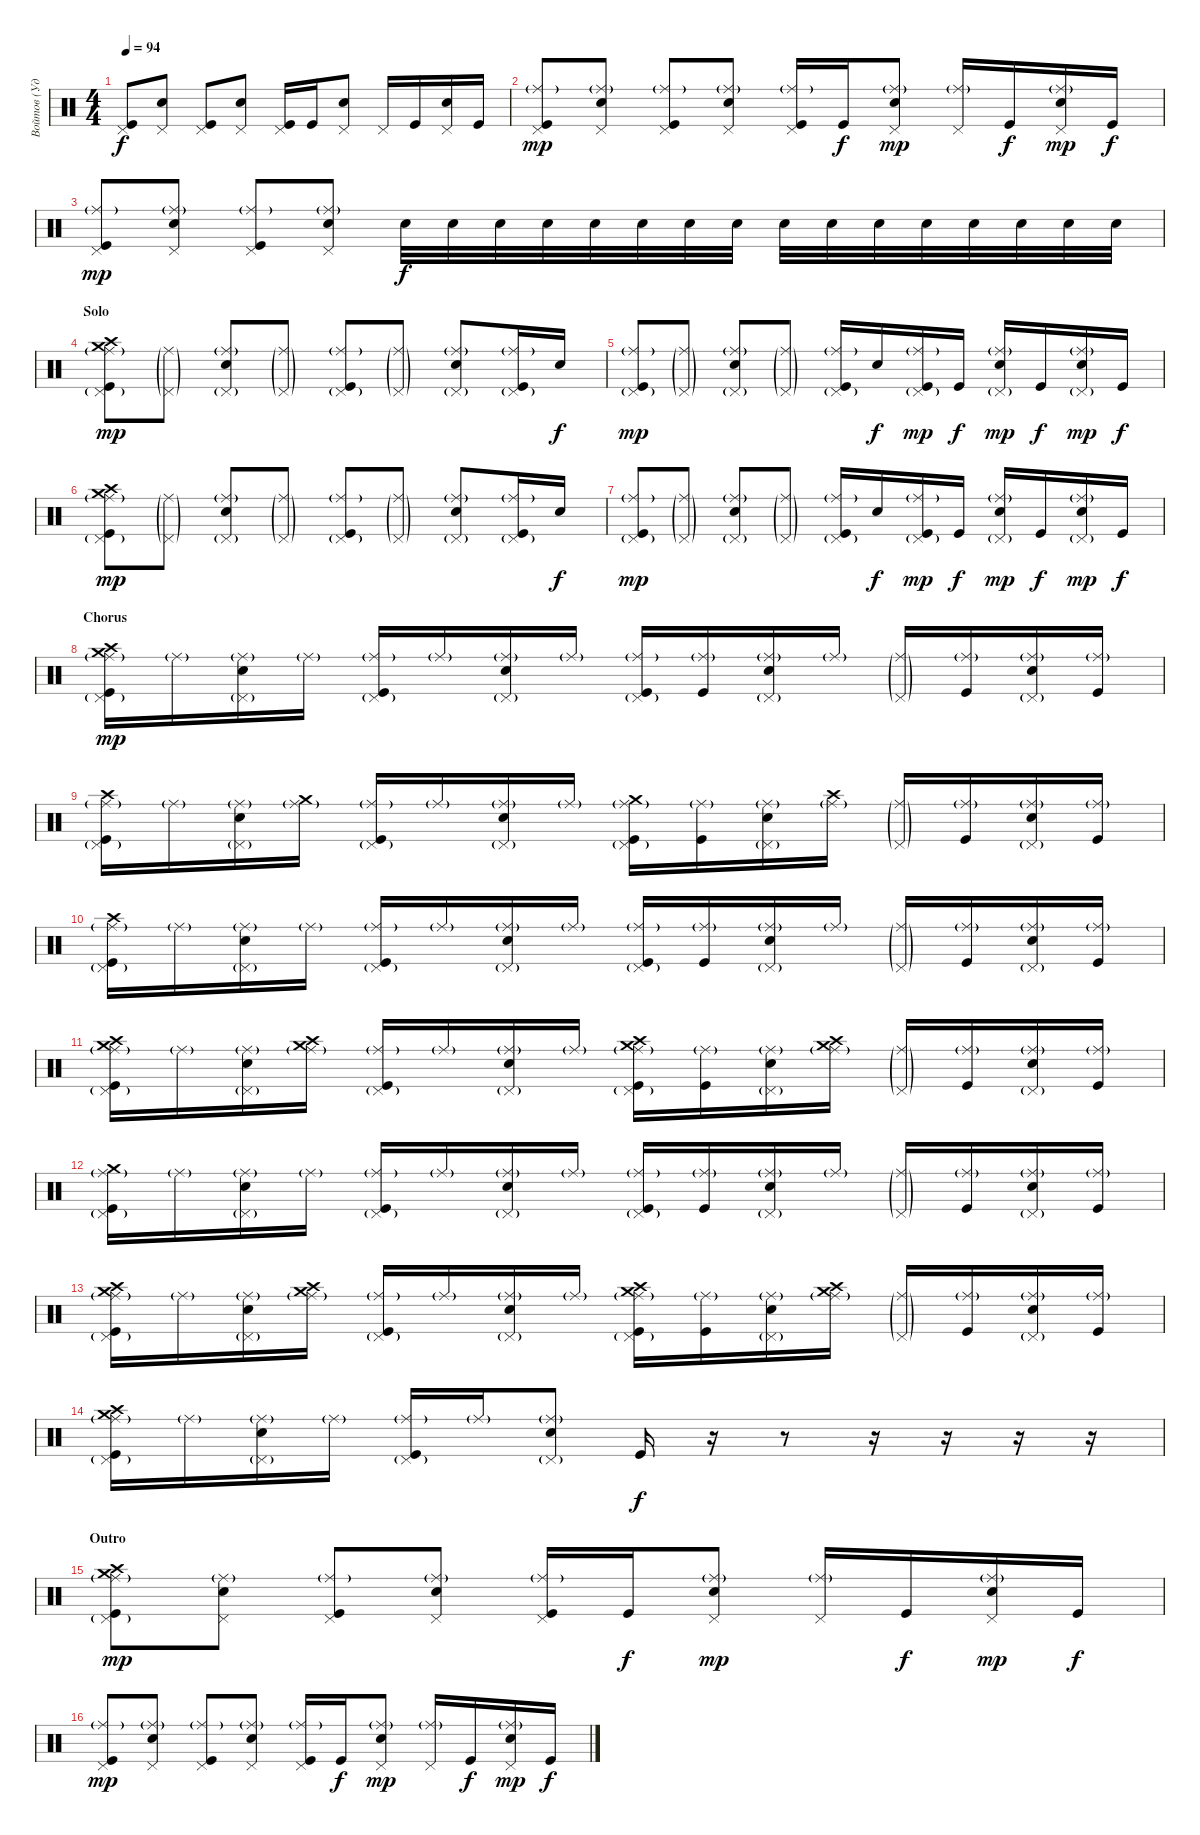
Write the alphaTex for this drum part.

\track ("Войтов (Ударные)" "Войтов (Уд") {instrument percussion}
\staff {score}
\articulation defaults
\ts (4 4)
\tempo 94
\clef neutral
\ks c
("Pedal Hi-Hat (hit)" "Kick (hit)").8{dy f} ("Pedal Hi-Hat (hit)" "Electric Snare (hit)").8 ("Pedal Hi-Hat (hit)" "Kick (hit)").8 ("Pedal Hi-Hat (hit)" "Electric Snare (hit)").8 ("Pedal Hi-Hat (hit)" "Kick (hit)").16 "Kick (hit)".16 ("Pedal Hi-Hat (hit)" "Electric Snare (hit)").8 "Pedal Hi-Hat (hit)".16 "Kick (hit)".16 ("Pedal Hi-Hat (hit)" "Electric Snare (hit)").16 "Kick (hit)".16 |
("Ride (middle)"{g} "Pedal Hi-Hat (hit)" "Kick (hit)").8{dy mp} ("Ride (middle)"{g} "Pedal Hi-Hat (hit)" "Electric Snare (hit)").8 ("Ride (middle)"{g} "Pedal Hi-Hat (hit)" "Kick (hit)").8 ("Ride (middle)"{g} "Pedal Hi-Hat (hit)" "Electric Snare (hit)").8 ("Ride (middle)"{g} "Pedal Hi-Hat (hit)" "Kick (hit)").16 "Kick (hit)".16{dy f} ("Ride (middle)"{g} "Pedal Hi-Hat (hit)" "Electric Snare (hit)").8{dy mp} ("Ride (middle)"{g} "Pedal Hi-Hat (hit)").16 "Kick (hit)".16{dy f} ("Ride (middle)"{g} "Pedal Hi-Hat (hit)" "Electric Snare (hit)").16{dy mp} "Kick (hit)".16{dy f} |
("Ride (middle)"{g} "Pedal Hi-Hat (hit)" "Kick (hit)").8{dy mp} ("Ride (middle)"{g} "Pedal Hi-Hat (hit)" "Electric Snare (hit)").8 ("Ride (middle)"{g} "Pedal Hi-Hat (hit)" "Kick (hit)").8 ("Ride (middle)"{g} "Pedal Hi-Hat (hit)" "Electric Snare (hit)").8 "Electric Snare (hit)".32{dy f} "Electric Snare (hit)".32 "Electric Snare (hit)".32 "Electric Snare (hit)".32 "Electric Snare (hit)".32 "Electric Snare (hit)".32 "Electric Snare (hit)".32 "Electric Snare (hit)".32 "Electric Snare (hit)".32 "Electric Snare (hit)".32 "Electric Snare (hit)".32 "Electric Snare (hit)".32 "Electric Snare (hit)".32 "Electric Snare (hit)".32 "Electric Snare (hit)".32 "Electric Snare (hit)".32 |
\section ("" "Solo")
("Crash medium (hit)" "Crash high (hit)" "Ride (middle)"{g} "Pedal Hi-Hat (hit)"{g} "Kick (hit)").8{dy mp} ("Ride (middle)"{g} "Pedal Hi-Hat (hit)"{g}).8 ("Ride (middle)"{g} "Pedal Hi-Hat (hit)"{g} "Electric Snare (hit)").8 ("Ride (middle)"{g} "Pedal Hi-Hat (hit)"{g}).8 ("Ride (middle)"{g} "Pedal Hi-Hat (hit)"{g} "Kick (hit)").8 ("Ride (middle)"{g} "Pedal Hi-Hat (hit)"{g}).8 ("Ride (middle)"{g} "Pedal Hi-Hat (hit)"{g} "Electric Snare (hit)").8 ("Ride (middle)"{g} "Pedal Hi-Hat (hit)"{g} "Kick (hit)").16 "Electric Snare (hit)".16{dy f} |
("Pedal Hi-Hat (hit)"{g} "Ride (middle)"{g} "Kick (hit)").8{dy mp} ("Pedal Hi-Hat (hit)"{g} "Ride (middle)"{g}).8 ("Pedal Hi-Hat (hit)"{g} "Ride (middle)"{g} "Electric Snare (hit)").8 ("Pedal Hi-Hat (hit)"{g} "Ride (middle)"{g}).8 ("Pedal Hi-Hat (hit)"{g} "Ride (middle)"{g} "Kick (hit)").16 "Electric Snare (hit)".16{dy f} ("Pedal Hi-Hat (hit)"{g} "Ride (middle)"{g} "Kick (hit)").16{dy mp} "Kick (hit)".16{dy f} ("Pedal Hi-Hat (hit)"{g} "Ride (middle)"{g} "Electric Snare (hit)").16{dy mp} "Kick (hit)".16{dy f} ("Pedal Hi-Hat (hit)"{g} "Ride (middle)"{g} "Electric Snare (hit)").16{dy mp} "Kick (hit)".16{dy f} |
("Crash medium (hit)" "Crash high (hit)" "Ride (middle)"{g} "Pedal Hi-Hat (hit)"{g} "Kick (hit)").8{dy mp} ("Ride (middle)"{g} "Pedal Hi-Hat (hit)"{g}).8 ("Ride (middle)"{g} "Pedal Hi-Hat (hit)"{g} "Electric Snare (hit)").8 ("Ride (middle)"{g} "Pedal Hi-Hat (hit)"{g}).8 ("Ride (middle)"{g} "Pedal Hi-Hat (hit)"{g} "Kick (hit)").8 ("Ride (middle)"{g} "Pedal Hi-Hat (hit)"{g}).8 ("Ride (middle)"{g} "Pedal Hi-Hat (hit)"{g} "Electric Snare (hit)").8 ("Ride (middle)"{g} "Pedal Hi-Hat (hit)"{g} "Kick (hit)").16 "Electric Snare (hit)".16{dy f} |
("Pedal Hi-Hat (hit)"{g} "Ride (middle)"{g} "Kick (hit)").8{dy mp} ("Pedal Hi-Hat (hit)"{g} "Ride (middle)"{g}).8 ("Pedal Hi-Hat (hit)"{g} "Ride (middle)"{g} "Electric Snare (hit)").8 ("Pedal Hi-Hat (hit)"{g} "Ride (middle)"{g}).8 ("Pedal Hi-Hat (hit)"{g} "Ride (middle)"{g} "Kick (hit)").16 "Electric Snare (hit)".16{dy f} ("Pedal Hi-Hat (hit)"{g} "Ride (middle)"{g} "Kick (hit)").16{dy mp} "Kick (hit)".16{dy f} ("Pedal Hi-Hat (hit)"{g} "Ride (middle)"{g} "Electric Snare (hit)").16{dy mp} "Kick (hit)".16{dy f} ("Pedal Hi-Hat (hit)"{g} "Ride (middle)"{g} "Electric Snare (hit)").16{dy mp} "Kick (hit)".16{dy f} |
\section ("" "Chorus")
("Crash high (hit)" "Ride (middle)"{g} "Crash medium (hit)" "Pedal Hi-Hat (hit)"{g} "Kick (hit)").16{dy mp} "Ride (middle)"{g}.16 ("Ride (middle)"{g} "Pedal Hi-Hat (hit)"{g} "Electric Snare (hit)").16 "Ride (middle)"{g}.16 ("Ride (middle)"{g} "Pedal Hi-Hat (hit)"{g} "Kick (hit)").16 "Ride (middle)"{g}.16 ("Ride (middle)"{g} "Pedal Hi-Hat (hit)"{g} "Electric Snare (hit)").16 "Ride (middle)"{g}.16 ("Ride (middle)"{g} "Pedal Hi-Hat (hit)"{g} "Kick (hit)").16 ("Ride (middle)"{g} "Kick (hit)").16 ("Ride (middle)"{g} "Pedal Hi-Hat (hit)"{g} "Electric Snare (hit)").16 "Ride (middle)"{g}.16 ("Ride (middle)"{g} "Pedal Hi-Hat (hit)"{g}).16 ("Ride (middle)"{g} "Kick (hit)").16 ("Ride (middle)"{g} "Pedal Hi-Hat (hit)"{g} "Electric Snare (hit)").16 ("Ride (middle)"{g} "Kick (hit)").16 |
("Crash high (hit)" "Ride (middle)"{g} "Pedal Hi-Hat (hit)"{g} "Kick (hit)").16 "Ride (middle)"{g}.16 ("Ride (middle)"{g} "Pedal Hi-Hat (hit)"{g} "Electric Snare (hit)").16 ("Crash medium (hit)" "Ride (middle)"{g}).16 ("Ride (middle)"{g} "Pedal Hi-Hat (hit)"{g} "Kick (hit)").16 "Ride (middle)"{g}.16 ("Ride (middle)"{g} "Pedal Hi-Hat (hit)"{g} "Electric Snare (hit)").16 "Ride (middle)"{g}.16 ("Crash medium (hit)" "Ride (middle)"{g} "Pedal Hi-Hat (hit)"{g} "Kick (hit)").16 ("Ride (middle)"{g} "Kick (hit)").16 ("Ride (middle)"{g} "Pedal Hi-Hat (hit)"{g} "Electric Snare (hit)").16 ("Crash high (hit)" "Ride (middle)"{g}).16 ("Ride (middle)"{g} "Pedal Hi-Hat (hit)"{g}).16 ("Ride (middle)"{g} "Kick (hit)").16 ("Ride (middle)"{g} "Pedal Hi-Hat (hit)"{g} "Electric Snare (hit)").16 ("Ride (middle)"{g} "Kick (hit)").16 |
("Crash high (hit)" "Ride (middle)"{g} "Pedal Hi-Hat (hit)"{g} "Kick (hit)").16 "Ride (middle)"{g}.16 ("Ride (middle)"{g} "Pedal Hi-Hat (hit)"{g} "Electric Snare (hit)").16 "Ride (middle)"{g}.16 ("Ride (middle)"{g} "Pedal Hi-Hat (hit)"{g} "Kick (hit)").16 "Ride (middle)"{g}.16 ("Ride (middle)"{g} "Pedal Hi-Hat (hit)"{g} "Electric Snare (hit)").16 "Ride (middle)"{g}.16 ("Ride (middle)"{g} "Pedal Hi-Hat (hit)"{g} "Kick (hit)").16 ("Ride (middle)"{g} "Kick (hit)").16 ("Ride (middle)"{g} "Pedal Hi-Hat (hit)"{g} "Electric Snare (hit)").16 "Ride (middle)"{g}.16 ("Ride (middle)"{g} "Pedal Hi-Hat (hit)"{g}).16 ("Ride (middle)"{g} "Kick (hit)").16 ("Ride (middle)"{g} "Pedal Hi-Hat (hit)"{g} "Electric Snare (hit)").16 ("Ride (middle)"{g} "Kick (hit)").16 |
("Crash high (hit)" "Ride (middle)"{g} "Crash medium (hit)" "Pedal Hi-Hat (hit)"{g} "Kick (hit)").16 "Ride (middle)"{g}.16 ("Ride (middle)"{g} "Pedal Hi-Hat (hit)"{g} "Electric Snare (hit)").16 ("Crash high (hit)" "Ride (middle)"{g} "Crash medium (hit)").16 ("Ride (middle)"{g} "Pedal Hi-Hat (hit)"{g} "Kick (hit)").16 "Ride (middle)"{g}.16 ("Ride (middle)"{g} "Pedal Hi-Hat (hit)"{g} "Electric Snare (hit)").16 "Ride (middle)"{g}.16 ("Crash high (hit)" "Ride (middle)"{g} "Crash medium (hit)" "Pedal Hi-Hat (hit)"{g} "Kick (hit)").16 ("Ride (middle)"{g} "Kick (hit)").16 ("Ride (middle)"{g} "Pedal Hi-Hat (hit)"{g} "Electric Snare (hit)").16 ("Crash high (hit)" "Ride (middle)"{g} "Crash medium (hit)").16 ("Ride (middle)"{g} "Pedal Hi-Hat (hit)"{g}).16 ("Ride (middle)"{g} "Kick (hit)").16 ("Ride (middle)"{g} "Pedal Hi-Hat (hit)"{g} "Electric Snare (hit)").16 ("Ride (middle)"{g} "Kick (hit)").16 |
("Crash medium (hit)" "Ride (middle)"{g} "Pedal Hi-Hat (hit)"{g} "Kick (hit)").16 "Ride (middle)"{g}.16 ("Ride (middle)"{g} "Pedal Hi-Hat (hit)"{g} "Electric Snare (hit)").16 "Ride (middle)"{g}.16 ("Ride (middle)"{g} "Pedal Hi-Hat (hit)"{g} "Kick (hit)").16 "Ride (middle)"{g}.16 ("Ride (middle)"{g} "Pedal Hi-Hat (hit)"{g} "Electric Snare (hit)").16 "Ride (middle)"{g}.16 ("Ride (middle)"{g} "Pedal Hi-Hat (hit)"{g} "Kick (hit)").16 ("Ride (middle)"{g} "Kick (hit)").16 ("Ride (middle)"{g} "Pedal Hi-Hat (hit)"{g} "Electric Snare (hit)").16 "Ride (middle)"{g}.16 ("Ride (middle)"{g} "Pedal Hi-Hat (hit)"{g}).16 ("Ride (middle)"{g} "Kick (hit)").16 ("Ride (middle)"{g} "Pedal Hi-Hat (hit)"{g} "Electric Snare (hit)").16 ("Ride (middle)"{g} "Kick (hit)").16 |
("Crash high (hit)" "Ride (middle)"{g} "Crash medium (hit)" "Pedal Hi-Hat (hit)"{g} "Kick (hit)").16 "Ride (middle)"{g}.16 ("Ride (middle)"{g} "Pedal Hi-Hat (hit)"{g} "Electric Snare (hit)").16 ("Crash high (hit)" "Ride (middle)"{g} "Crash medium (hit)").16 ("Ride (middle)"{g} "Pedal Hi-Hat (hit)"{g} "Kick (hit)").16 "Ride (middle)"{g}.16 ("Ride (middle)"{g} "Pedal Hi-Hat (hit)"{g} "Electric Snare (hit)").16 "Ride (middle)"{g}.16 ("Crash high (hit)" "Ride (middle)"{g} "Crash medium (hit)" "Pedal Hi-Hat (hit)"{g} "Kick (hit)").16 ("Ride (middle)"{g} "Kick (hit)").16 ("Ride (middle)"{g} "Pedal Hi-Hat (hit)"{g} "Electric Snare (hit)").16 ("Crash high (hit)" "Ride (middle)"{g} "Crash medium (hit)").16 ("Ride (middle)"{g} "Pedal Hi-Hat (hit)"{g}).16 ("Ride (middle)"{g} "Kick (hit)").16 ("Ride (middle)"{g} "Pedal Hi-Hat (hit)"{g} "Electric Snare (hit)").16 ("Ride (middle)"{g} "Kick (hit)").16 |
("Crash high (hit)" "Ride (middle)"{g} "Crash medium (hit)" "Pedal Hi-Hat (hit)"{g} "Kick (hit)").16 "Ride (middle)"{g}.16 ("Ride (middle)"{g} "Pedal Hi-Hat (hit)"{g} "Electric Snare (hit)").16 "Ride (middle)"{g}.16 ("Ride (middle)"{g} "Pedal Hi-Hat (hit)"{g} "Kick (hit)").16 "Ride (middle)"{g}.16 ("Ride (middle)"{g} "Pedal Hi-Hat (hit)"{g} "Electric Snare (hit)").8 "Kick (hit)".16{dy f} r.16 r.8 r.16 r.16 r.16 r.16 |
\section ("" "Outro")
("Crash medium (hit)" "Crash high (hit)" "Ride (middle)"{g} "Pedal Hi-Hat (hit)"{g} "Kick (hit)").8{dy mp} ("Ride (middle)"{g} "Pedal Hi-Hat (hit)" "Electric Snare (hit)").8 ("Ride (middle)"{g} "Pedal Hi-Hat (hit)" "Kick (hit)").8 ("Ride (middle)"{g} "Pedal Hi-Hat (hit)" "Electric Snare (hit)").8 ("Ride (middle)"{g} "Pedal Hi-Hat (hit)" "Kick (hit)").16 "Kick (hit)".16{dy f} ("Ride (middle)"{g} "Pedal Hi-Hat (hit)" "Electric Snare (hit)").8{dy mp} ("Ride (middle)"{g} "Pedal Hi-Hat (hit)").16 "Kick (hit)".16{dy f} ("Ride (middle)"{g} "Pedal Hi-Hat (hit)" "Electric Snare (hit)").16{dy mp} "Kick (hit)".16{dy f} |
("Ride (middle)"{g} "Pedal Hi-Hat (hit)" "Kick (hit)").8{dy mp} ("Ride (middle)"{g} "Pedal Hi-Hat (hit)" "Electric Snare (hit)").8 ("Ride (middle)"{g} "Pedal Hi-Hat (hit)" "Kick (hit)").8 ("Ride (middle)"{g} "Pedal Hi-Hat (hit)" "Electric Snare (hit)").8 ("Ride (middle)"{g} "Pedal Hi-Hat (hit)" "Kick (hit)").16 "Kick (hit)".16{dy f} ("Ride (middle)"{g} "Pedal Hi-Hat (hit)" "Electric Snare (hit)").8{dy mp} ("Ride (middle)"{g} "Pedal Hi-Hat (hit)").16 "Kick (hit)".16{dy f} ("Ride (middle)"{g} "Pedal Hi-Hat (hit)" "Electric Snare (hit)").16{dy mp} "Kick (hit)".16{dy f}
